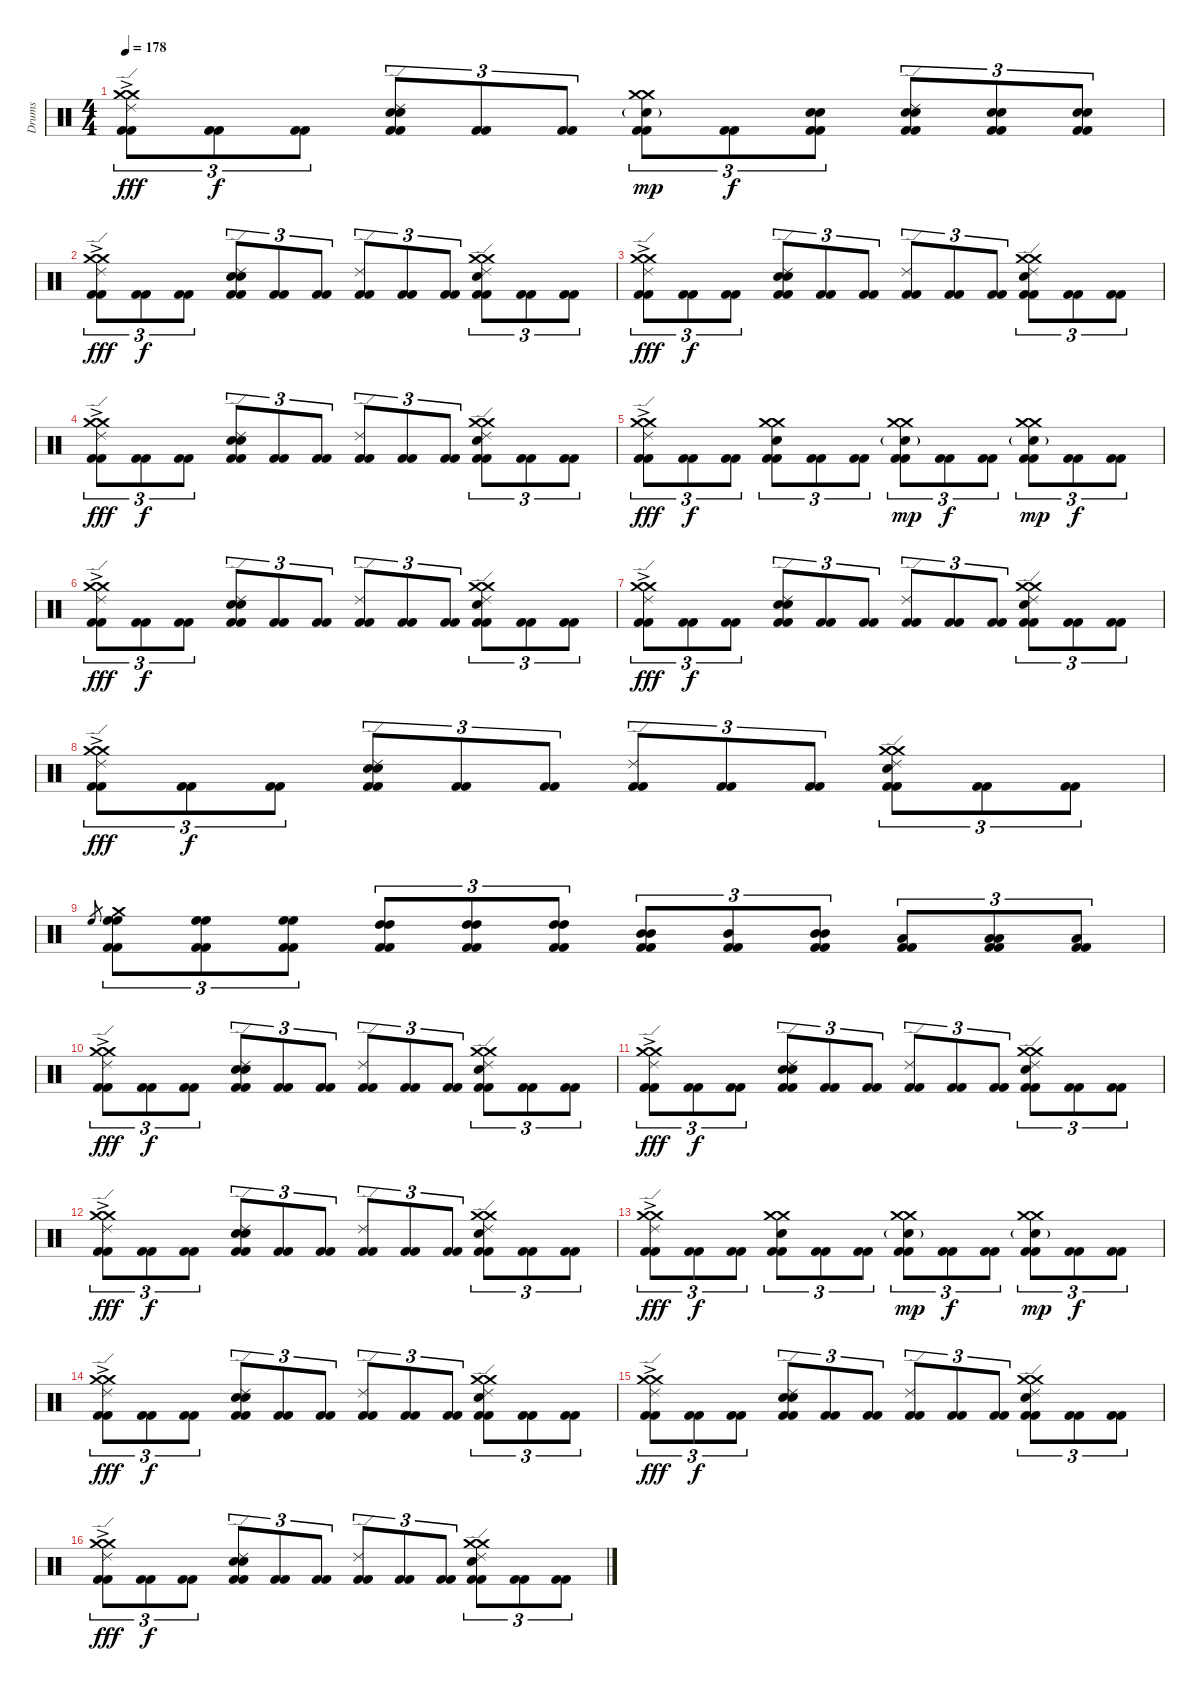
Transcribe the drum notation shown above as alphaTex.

\track ("Drums" "Drums") {instrument percussion}
\staff {score}
\articulation defaults
\ts (4 4)
\tempo 178
\clef neutral
\ks c
("Crash medium (hit)"{ac} "Crash medium (hit)"{ac} "Ride (edge) 2" "Kick (hit) 2" "Kick (hit) 2").8{tu (3 2) dy fff} ("Kick (hit) 2" "Kick (hit) 2").8{tu (3 2) dy f} ("Kick (hit) 2" "Kick (hit) 2").8{tu (3 2)} ("Ride (edge) 2" "Electric Snare (hit)" "Snare (hit) 2" "Kick (hit) 2" "Kick (hit) 2").8{tu (3 2)} ("Kick (hit) 2" "Kick (hit) 2").8{tu (3 2)} ("Kick (hit) 2" "Kick (hit) 2").8{tu (3 2)} ("Crash medium (hit)" "Crash medium (hit)" "Snare (hit) 2"{g} "Kick (hit) 2" "Kick (hit) 2").8{tu (3 2) dy mp} ("Kick (hit) 2" "Kick (hit) 2").8{tu (3 2) dy f} ("Snare (hit) 2" "Electric Snare (hit)" "Kick (hit) 2" "Kick (hit) 2").8{tu (3 2)} ("Electric Snare (hit)" "Ride (edge) 2" "Snare (hit) 2" "Kick (hit) 2" "Kick (hit) 2").8{tu (3 2)} ("Snare (hit) 2" "Electric Snare (hit)" "Kick (hit) 2" "Kick (hit) 2").8{tu (3 2)} ("Snare (hit) 2" "Electric Snare (hit)" "Kick (hit) 2" "Kick (hit) 2").8{tu (3 2)} |
("Crash medium (hit)"{ac} "Crash medium (hit)"{ac} "Ride (edge) 2" "Kick (hit) 2" "Kick (hit) 2").8{tu (3 2) dy fff} ("Kick (hit) 2" "Kick (hit) 2").8{tu (3 2) dy f} ("Kick (hit) 2" "Kick (hit) 2").8{tu (3 2)} ("Ride (edge) 2" "Snare (hit) 2" "Electric Snare (hit)" "Kick (hit) 2" "Kick (hit) 2").8{tu (3 2)} ("Kick (hit) 2" "Kick (hit) 2").8{tu (3 2)} ("Kick (hit) 2" "Kick (hit) 2").8{tu (3 2)} ("Ride (edge) 2" "Kick (hit) 2" "Kick (hit) 2").8{tu (3 2)} ("Kick (hit) 2" "Kick (hit) 2").8{tu (3 2)} ("Kick (hit) 2" "Kick (hit) 2").8{tu (3 2)} ("Crash medium (hit)" "Crash medium (hit)" "Electric Snare (hit)" "Ride (edge) 2" "Kick (hit) 2" "Kick (hit) 2").8{tu (3 2)} ("Kick (hit) 2" "Kick (hit) 2").8{tu (3 2)} ("Kick (hit) 2" "Kick (hit) 2").8{tu (3 2)} |
("Crash medium (hit)"{ac} "Crash medium (hit)"{ac} "Ride (edge) 2" "Kick (hit) 2" "Kick (hit) 2").8{tu (3 2) dy fff} ("Kick (hit) 2" "Kick (hit) 2").8{tu (3 2) dy f} ("Kick (hit) 2" "Kick (hit) 2").8{tu (3 2)} ("Ride (edge) 2" "Snare (hit) 2" "Electric Snare (hit)" "Kick (hit) 2" "Kick (hit) 2").8{tu (3 2)} ("Kick (hit) 2" "Kick (hit) 2").8{tu (3 2)} ("Kick (hit) 2" "Kick (hit) 2").8{tu (3 2)} ("Ride (edge) 2" "Kick (hit) 2" "Kick (hit) 2").8{tu (3 2)} ("Kick (hit) 2" "Kick (hit) 2").8{tu (3 2)} ("Kick (hit) 2" "Kick (hit) 2").8{tu (3 2)} ("Crash medium (hit)" "Crash medium (hit)" "Electric Snare (hit)" "Ride (edge) 2" "Kick (hit) 2" "Kick (hit) 2").8{tu (3 2)} ("Kick (hit) 2" "Kick (hit) 2").8{tu (3 2)} ("Kick (hit) 2" "Kick (hit) 2").8{tu (3 2)} |
("Crash medium (hit)"{ac} "Crash medium (hit)"{ac} "Ride (edge) 2" "Kick (hit) 2" "Kick (hit) 2").8{tu (3 2) dy fff} ("Kick (hit) 2" "Kick (hit) 2").8{tu (3 2) dy f} ("Kick (hit) 2" "Kick (hit) 2").8{tu (3 2)} ("Ride (edge) 2" "Snare (hit) 2" "Electric Snare (hit)" "Kick (hit) 2" "Kick (hit) 2").8{tu (3 2)} ("Kick (hit) 2" "Kick (hit) 2").8{tu (3 2)} ("Kick (hit) 2" "Kick (hit) 2").8{tu (3 2)} ("Ride (edge) 2" "Kick (hit) 2" "Kick (hit) 2").8{tu (3 2)} ("Kick (hit) 2" "Kick (hit) 2").8{tu (3 2)} ("Kick (hit) 2" "Kick (hit) 2").8{tu (3 2)} ("Crash medium (hit)" "Crash medium (hit)" "Electric Snare (hit)" "Ride (edge) 2" "Kick (hit) 2" "Kick (hit) 2").8{tu (3 2)} ("Kick (hit) 2" "Kick (hit) 2").8{tu (3 2)} ("Kick (hit) 2" "Kick (hit) 2").8{tu (3 2)} |
("Crash medium (hit)"{ac} "Crash medium (hit)"{ac} "Ride (edge) 2" "Kick (hit) 2" "Kick (hit) 2").8{tu (3 2) dy fff} ("Kick (hit) 2" "Kick (hit) 2").8{tu (3 2) dy f} ("Kick (hit) 2" "Kick (hit) 2").8{tu (3 2)} ("Crash medium (hit)" "Crash medium (hit)" "Electric Snare (hit)" "Kick (hit) 2" "Kick (hit) 2").8{tu (3 2)} ("Kick (hit) 2" "Kick (hit) 2").8{tu (3 2)} ("Kick (hit) 2" "Kick (hit) 2").8{tu (3 2)} ("Crash medium (hit)" "Crash medium (hit)" "Snare (hit) 2"{g} "Kick (hit) 2" "Kick (hit) 2").8{tu (3 2) dy mp} ("Kick (hit) 2" "Kick (hit) 2").8{tu (3 2) dy f} ("Kick (hit) 2" "Kick (hit) 2").8{tu (3 2)} ("Crash medium (hit)" "Crash medium (hit)" "Snare (hit) 2"{g} "Kick (hit) 2" "Kick (hit) 2").8{tu (3 2) dy mp} ("Kick (hit) 2" "Kick (hit) 2").8{tu (3 2) dy f} ("Kick (hit) 2" "Kick (hit) 2").8{tu (3 2)} |
("Crash medium (hit)"{ac} "Crash medium (hit)"{ac} "Ride (edge) 2" "Kick (hit) 2" "Kick (hit) 2").8{tu (3 2) dy fff} ("Kick (hit) 2" "Kick (hit) 2").8{tu (3 2) dy f} ("Kick (hit) 2" "Kick (hit) 2").8{tu (3 2)} ("Ride (edge) 2" "Snare (hit) 2" "Electric Snare (hit)" "Kick (hit) 2" "Kick (hit) 2").8{tu (3 2)} ("Kick (hit) 2" "Kick (hit) 2").8{tu (3 2)} ("Kick (hit) 2" "Kick (hit) 2").8{tu (3 2)} ("Ride (edge) 2" "Kick (hit) 2" "Kick (hit) 2").8{tu (3 2)} ("Kick (hit) 2" "Kick (hit) 2").8{tu (3 2)} ("Kick (hit) 2" "Kick (hit) 2").8{tu (3 2)} ("Crash medium (hit)" "Crash medium (hit)" "Electric Snare (hit)" "Ride (edge) 2" "Kick (hit) 2" "Kick (hit) 2").8{tu (3 2)} ("Kick (hit) 2" "Kick (hit) 2").8{tu (3 2)} ("Kick (hit) 2" "Kick (hit) 2").8{tu (3 2)} |
("Crash medium (hit)"{ac} "Crash medium (hit)"{ac} "Ride (edge) 2" "Kick (hit) 2" "Kick (hit) 2").8{tu (3 2) dy fff} ("Kick (hit) 2" "Kick (hit) 2").8{tu (3 2) dy f} ("Kick (hit) 2" "Kick (hit) 2").8{tu (3 2)} ("Ride (edge) 2" "Snare (hit) 2" "Electric Snare (hit)" "Kick (hit) 2" "Kick (hit) 2").8{tu (3 2)} ("Kick (hit) 2" "Kick (hit) 2").8{tu (3 2)} ("Kick (hit) 2" "Kick (hit) 2").8{tu (3 2)} ("Ride (edge) 2" "Kick (hit) 2" "Kick (hit) 2").8{tu (3 2)} ("Kick (hit) 2" "Kick (hit) 2").8{tu (3 2)} ("Kick (hit) 2" "Kick (hit) 2").8{tu (3 2)} ("Crash medium (hit)" "Crash medium (hit)" "Electric Snare (hit)" "Ride (edge) 2" "Kick (hit) 2" "Kick (hit) 2").8{tu (3 2)} ("Kick (hit) 2" "Kick (hit) 2").8{tu (3 2)} ("Kick (hit) 2" "Kick (hit) 2").8{tu (3 2)} |
("Crash medium (hit)"{ac} "Crash medium (hit)"{ac} "Ride (edge) 2" "Kick (hit) 2" "Kick (hit) 2").8{tu (3 2) dy fff} ("Kick (hit) 2" "Kick (hit) 2").8{tu (3 2) dy f} ("Kick (hit) 2" "Kick (hit) 2").8{tu (3 2)} ("Ride (edge) 2" "Snare (hit) 2" "Electric Snare (hit)" "Kick (hit) 2" "Kick (hit) 2").8{tu (3 2)} ("Kick (hit) 2" "Kick (hit) 2").8{tu (3 2)} ("Kick (hit) 2" "Kick (hit) 2").8{tu (3 2)} ("Ride (edge) 2" "Kick (hit) 2" "Kick (hit) 2").8{tu (3 2)} ("Kick (hit) 2" "Kick (hit) 2").8{tu (3 2)} ("Kick (hit) 2" "Kick (hit) 2").8{tu (3 2)} ("Crash medium (hit)" "Crash medium (hit)" "Electric Snare (hit)" "Ride (edge) 2" "Kick (hit) 2" "Kick (hit) 2").8{tu (3 2)} ("Kick (hit) 2" "Kick (hit) 2").8{tu (3 2)} ("Kick (hit) 2" "Kick (hit) 2").8{tu (3 2)} |
"High Floor Tom (hit)".8{gr} ("Crash medium (hit)" "High Floor Tom (hit)" "High Floor Tom (hit)" "Kick (hit) 2" "Kick (hit) 2").8{tu (3 2)} ("High Floor Tom (hit)" "High Floor Tom (hit)" "Kick (hit) 2" "Kick (hit) 2").8{tu (3 2)} ("High Floor Tom (hit)" "High Floor Tom (hit)" "Kick (hit) 2" "Kick (hit) 2").8{tu (3 2)} ("High Tom (hit)" "High Tom (hit)" "Kick (hit) 2" "Kick (hit) 2").8{tu (3 2)} ("High Tom (hit)" "High Tom (hit)" "Kick (hit) 2" "Kick (hit) 2").8{tu (3 2)} ("High Tom (hit)" "High Tom (hit)" "Kick (hit) 2" "Kick (hit) 2").8{tu (3 2)} ("Mid Tom (hit)" "Mid Tom (hit)" "Kick (hit) 2" "Kick (hit) 2").8{tu (3 2)} ("Mid Tom (hit)" "Kick (hit) 2" "Kick (hit) 2").8{tu (3 2)} ("Mid Tom (hit)" "Mid Tom (hit)" "Kick (hit) 2" "Kick (hit) 2").8{tu (3 2)} ("Low Tom (hit)" "Kick (hit) 2" "Kick (hit) 2").8{tu (3 2)} ("Low Tom (hit)" "Low Tom (hit)" "Kick (hit) 2" "Kick (hit) 2").8{tu (3 2)} ("Low Tom (hit)" "Kick (hit) 2" "Kick (hit) 2").8{tu (3 2)} |
("Crash medium (hit)"{ac} "Crash medium (hit)"{ac} "Ride (edge) 2" "Kick (hit) 2" "Kick (hit) 2").8{tu (3 2) dy fff} ("Kick (hit) 2" "Kick (hit) 2").8{tu (3 2) dy f} ("Kick (hit) 2" "Kick (hit) 2").8{tu (3 2)} ("Ride (edge) 2" "Snare (hit) 2" "Electric Snare (hit)" "Kick (hit) 2" "Kick (hit) 2").8{tu (3 2)} ("Kick (hit) 2" "Kick (hit) 2").8{tu (3 2)} ("Kick (hit) 2" "Kick (hit) 2").8{tu (3 2)} ("Ride (edge) 2" "Kick (hit) 2" "Kick (hit) 2").8{tu (3 2)} ("Kick (hit) 2" "Kick (hit) 2").8{tu (3 2)} ("Kick (hit) 2" "Kick (hit) 2").8{tu (3 2)} ("Crash medium (hit)" "Crash medium (hit)" "Electric Snare (hit)" "Ride (edge) 2" "Kick (hit) 2" "Kick (hit) 2").8{tu (3 2)} ("Kick (hit) 2" "Kick (hit) 2").8{tu (3 2)} ("Kick (hit) 2" "Kick (hit) 2").8{tu (3 2)} |
("Crash medium (hit)"{ac} "Crash medium (hit)"{ac} "Ride (edge) 2" "Kick (hit) 2" "Kick (hit) 2").8{tu (3 2) dy fff} ("Kick (hit) 2" "Kick (hit) 2").8{tu (3 2) dy f} ("Kick (hit) 2" "Kick (hit) 2").8{tu (3 2)} ("Ride (edge) 2" "Snare (hit) 2" "Electric Snare (hit)" "Kick (hit) 2" "Kick (hit) 2").8{tu (3 2)} ("Kick (hit) 2" "Kick (hit) 2").8{tu (3 2)} ("Kick (hit) 2" "Kick (hit) 2").8{tu (3 2)} ("Ride (edge) 2" "Kick (hit) 2" "Kick (hit) 2").8{tu (3 2)} ("Kick (hit) 2" "Kick (hit) 2").8{tu (3 2)} ("Kick (hit) 2" "Kick (hit) 2").8{tu (3 2)} ("Crash medium (hit)" "Crash medium (hit)" "Electric Snare (hit)" "Ride (edge) 2" "Kick (hit) 2" "Kick (hit) 2").8{tu (3 2)} ("Kick (hit) 2" "Kick (hit) 2").8{tu (3 2)} ("Kick (hit) 2" "Kick (hit) 2").8{tu (3 2)} |
("Crash medium (hit)"{ac} "Crash medium (hit)"{ac} "Ride (edge) 2" "Kick (hit) 2" "Kick (hit) 2").8{tu (3 2) dy fff} ("Kick (hit) 2" "Kick (hit) 2").8{tu (3 2) dy f} ("Kick (hit) 2" "Kick (hit) 2").8{tu (3 2)} ("Ride (edge) 2" "Snare (hit) 2" "Electric Snare (hit)" "Kick (hit) 2" "Kick (hit) 2").8{tu (3 2)} ("Kick (hit) 2" "Kick (hit) 2").8{tu (3 2)} ("Kick (hit) 2" "Kick (hit) 2").8{tu (3 2)} ("Ride (edge) 2" "Kick (hit) 2" "Kick (hit) 2").8{tu (3 2)} ("Kick (hit) 2" "Kick (hit) 2").8{tu (3 2)} ("Kick (hit) 2" "Kick (hit) 2").8{tu (3 2)} ("Crash medium (hit)" "Crash medium (hit)" "Electric Snare (hit)" "Ride (edge) 2" "Kick (hit) 2" "Kick (hit) 2").8{tu (3 2)} ("Kick (hit) 2" "Kick (hit) 2").8{tu (3 2)} ("Kick (hit) 2" "Kick (hit) 2").8{tu (3 2)} |
("Crash medium (hit)"{ac} "Crash medium (hit)"{ac} "Ride (edge) 2" "Kick (hit) 2" "Kick (hit) 2").8{tu (3 2) dy fff} ("Kick (hit) 2" "Kick (hit) 2").8{tu (3 2) dy f} ("Kick (hit) 2" "Kick (hit) 2").8{tu (3 2)} ("Crash medium (hit)" "Crash medium (hit)" "Electric Snare (hit)" "Kick (hit) 2" "Kick (hit) 2").8{tu (3 2)} ("Kick (hit) 2" "Kick (hit) 2").8{tu (3 2)} ("Kick (hit) 2" "Kick (hit) 2").8{tu (3 2)} ("Crash medium (hit)" "Crash medium (hit)" "Snare (hit) 2"{g} "Kick (hit) 2" "Kick (hit) 2").8{tu (3 2) dy mp} ("Kick (hit) 2" "Kick (hit) 2").8{tu (3 2) dy f} ("Kick (hit) 2" "Kick (hit) 2").8{tu (3 2)} ("Crash medium (hit)" "Crash medium (hit)" "Snare (hit) 2"{g} "Kick (hit) 2" "Kick (hit) 2").8{tu (3 2) dy mp} ("Kick (hit) 2" "Kick (hit) 2").8{tu (3 2) dy f} ("Kick (hit) 2" "Kick (hit) 2").8{tu (3 2)} |
("Crash medium (hit)"{ac} "Crash medium (hit)"{ac} "Ride (edge) 2" "Kick (hit) 2" "Kick (hit) 2").8{tu (3 2) dy fff} ("Kick (hit) 2" "Kick (hit) 2").8{tu (3 2) dy f} ("Kick (hit) 2" "Kick (hit) 2").8{tu (3 2)} ("Ride (edge) 2" "Snare (hit) 2" "Electric Snare (hit)" "Kick (hit) 2" "Kick (hit) 2").8{tu (3 2)} ("Kick (hit) 2" "Kick (hit) 2").8{tu (3 2)} ("Kick (hit) 2" "Kick (hit) 2").8{tu (3 2)} ("Ride (edge) 2" "Kick (hit) 2" "Kick (hit) 2").8{tu (3 2)} ("Kick (hit) 2" "Kick (hit) 2").8{tu (3 2)} ("Kick (hit) 2" "Kick (hit) 2").8{tu (3 2)} ("Crash medium (hit)" "Crash medium (hit)" "Electric Snare (hit)" "Ride (edge) 2" "Kick (hit) 2" "Kick (hit) 2").8{tu (3 2)} ("Kick (hit) 2" "Kick (hit) 2").8{tu (3 2)} ("Kick (hit) 2" "Kick (hit) 2").8{tu (3 2)} |
("Crash medium (hit)"{ac} "Crash medium (hit)"{ac} "Ride (edge) 2" "Kick (hit) 2" "Kick (hit) 2").8{tu (3 2) dy fff} ("Kick (hit) 2" "Kick (hit) 2").8{tu (3 2) dy f} ("Kick (hit) 2" "Kick (hit) 2").8{tu (3 2)} ("Ride (edge) 2" "Snare (hit) 2" "Electric Snare (hit)" "Kick (hit) 2" "Kick (hit) 2").8{tu (3 2)} ("Kick (hit) 2" "Kick (hit) 2").8{tu (3 2)} ("Kick (hit) 2" "Kick (hit) 2").8{tu (3 2)} ("Ride (edge) 2" "Kick (hit) 2" "Kick (hit) 2").8{tu (3 2)} ("Kick (hit) 2" "Kick (hit) 2").8{tu (3 2)} ("Kick (hit) 2" "Kick (hit) 2").8{tu (3 2)} ("Crash medium (hit)" "Crash medium (hit)" "Electric Snare (hit)" "Ride (edge) 2" "Kick (hit) 2" "Kick (hit) 2").8{tu (3 2)} ("Kick (hit) 2" "Kick (hit) 2").8{tu (3 2)} ("Kick (hit) 2" "Kick (hit) 2").8{tu (3 2)} |
("Crash medium (hit)"{ac} "Crash medium (hit)"{ac} "Ride (edge) 2" "Kick (hit) 2" "Kick (hit) 2").8{tu (3 2) dy fff} ("Kick (hit) 2" "Kick (hit) 2").8{tu (3 2) dy f} ("Kick (hit) 2" "Kick (hit) 2").8{tu (3 2)} ("Ride (edge) 2" "Snare (hit) 2" "Electric Snare (hit)" "Kick (hit) 2" "Kick (hit) 2").8{tu (3 2)} ("Kick (hit) 2" "Kick (hit) 2").8{tu (3 2)} ("Kick (hit) 2" "Kick (hit) 2").8{tu (3 2)} ("Ride (edge) 2" "Kick (hit) 2" "Kick (hit) 2").8{tu (3 2)} ("Kick (hit) 2" "Kick (hit) 2").8{tu (3 2)} ("Kick (hit) 2" "Kick (hit) 2").8{tu (3 2)} ("Crash medium (hit)" "Crash medium (hit)" "Electric Snare (hit)" "Ride (edge) 2" "Kick (hit) 2" "Kick (hit) 2").8{tu (3 2)} ("Kick (hit) 2" "Kick (hit) 2").8{tu (3 2)} ("Kick (hit) 2" "Kick (hit) 2").8{tu (3 2)}
